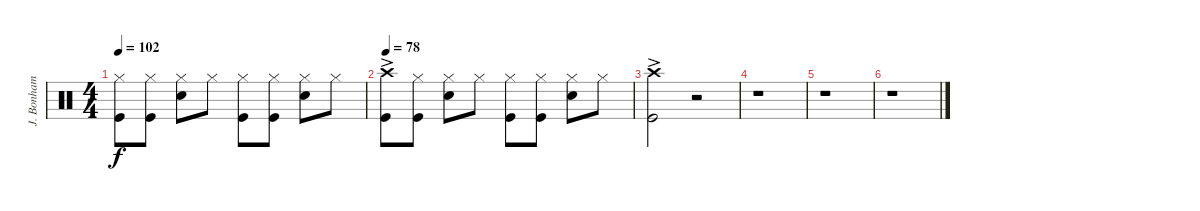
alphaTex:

\track ("J. Bonham" "J. Bonham") {instrument percussion}
\staff {score}
\articulation defaults
\ts (4 4)
\tempo 102
\clef neutral
\ks c
("Hi-Hat (closed)" "Kick (hit)").8{dy f} ("Hi-Hat (closed)" "Kick (hit)").8 ("Hi-Hat (closed)" "Snare (hit) 2").8 "Hi-Hat (closed)".8 ("Hi-Hat (closed)" "Kick (hit)").8 ("Hi-Hat (closed)" "Kick (hit)").8 ("Hi-Hat (closed)" "Snare (hit) 2").8 "Hi-Hat (closed)".8 |
\tempo 78
("Crash high (hit)"{ac} "Kick (hit)").8 ("Hi-Hat (closed)" "Kick (hit)").8 ("Hi-Hat (closed)" "Snare (hit) 2").8 "Hi-Hat (closed)".8 ("Hi-Hat (closed)" "Kick (hit)").8 ("Hi-Hat (closed)" "Kick (hit)").8 ("Hi-Hat (closed)" "Snare (hit) 2").8 "Hi-Hat (closed)".8 |
("Crash high (hit)"{ac} "Kick (hit)").2 r.2 |
r.1 |
r.1 |
r.1
